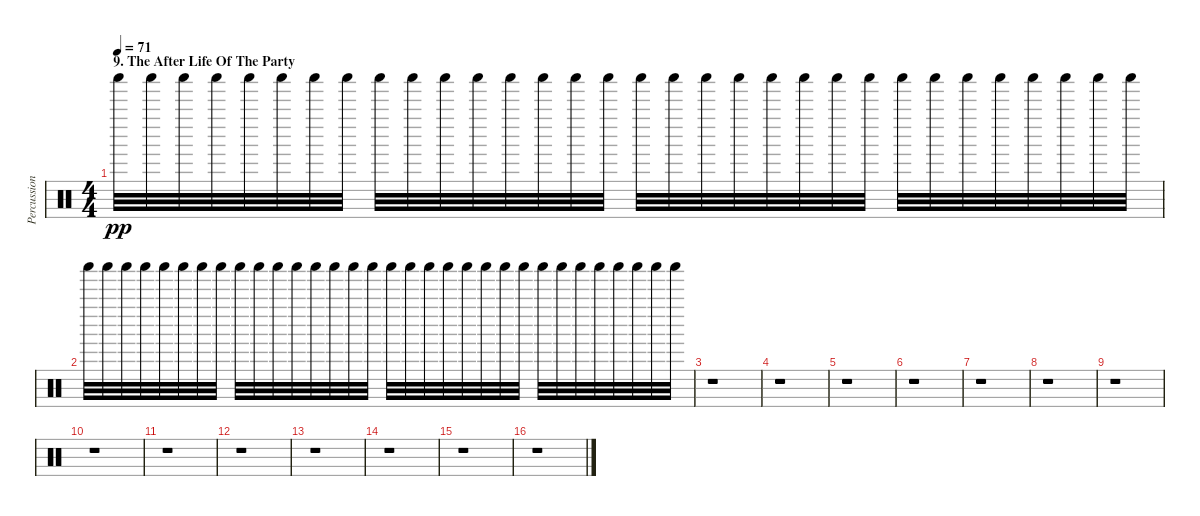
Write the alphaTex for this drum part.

\track ("Percussion" "Percussion") {instrument percussion}
\staff {score}
\articulation defaults
\ts (4 4)
\section ("" "9. The After Life Of The Party")
\tempo 71
\clef neutral
\ks c "Shaker (hit)".32{dy pp volume 16} "Shaker (hit)".32 "Shaker (hit)".32 "Shaker (hit)".32 "Shaker (hit)".32 "Shaker (hit)".32 "Shaker (hit)".32 "Shaker (hit)".32 "Shaker (hit)".32 "Shaker (hit)".32 "Shaker (hit)".32 "Shaker (hit)".32 "Shaker (hit)".32 "Shaker (hit)".32 "Shaker (hit)".32 "Shaker (hit)".32 "Shaker (hit)".32 "Shaker (hit)".32 "Shaker (hit)".32 "Shaker (hit)".32 "Shaker (hit)".32 "Shaker (hit)".32 "Shaker (hit)".32 "Shaker (hit)".32 "Shaker (hit)".32 "Shaker (hit)".32 "Shaker (hit)".32 "Shaker (hit)".32 "Shaker (hit)".32 "Shaker (hit)".32 "Shaker (hit)".32 "Shaker (hit)".32
|
"Shaker (hit)".32 "Shaker (hit)".32 "Shaker (hit)".32 "Shaker (hit)".32 "Shaker (hit)".32 "Shaker (hit)".32 "Shaker (hit)".32 "Shaker (hit)".32 "Shaker (hit)".32 "Shaker (hit)".32 "Shaker (hit)".32 "Shaker (hit)".32 "Shaker (hit)".32 "Shaker (hit)".32 "Shaker (hit)".32 "Shaker (hit)".32 "Shaker (hit)".32 "Shaker (hit)".32 "Shaker (hit)".32 "Shaker (hit)".32 "Shaker (hit)".32 "Shaker (hit)".32 "Shaker (hit)".32 "Shaker (hit)".32 "Shaker (hit)".32 "Shaker (hit)".32 "Shaker (hit)".32 "Shaker (hit)".32 "Shaker (hit)".32 "Shaker (hit)".32 "Shaker (hit)".32 "Shaker (hit)".32 |
r.1 |
r.1 |
r.1 |
r.1 |
r.1 |
r.1 |
r.1 |
r.1 |
r.1 |
r.1 |
r.1 |
r.1 |
r.1 |
r.1
